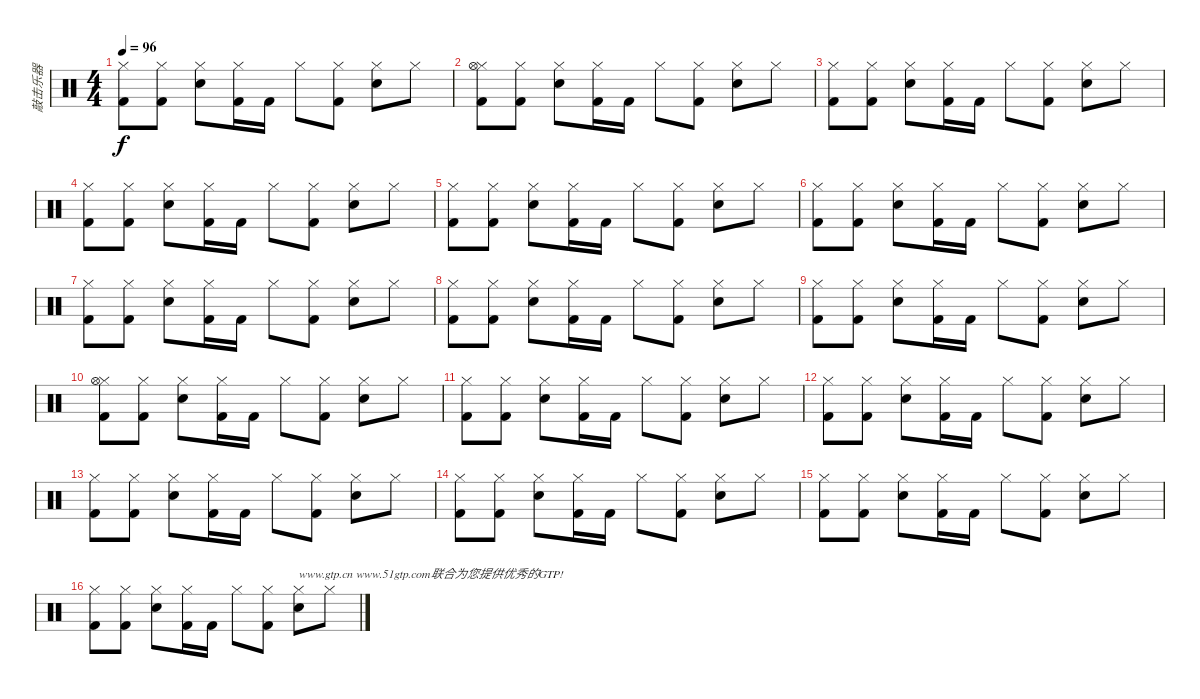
\track ("敲击乐器" "敲击乐器") {instrument percussion}
\staff {score}
\articulation defaults
\ts (4 4)
\tempo 96
\clef neutral
\ks c
("Hi-Hat (closed)" "Kick (hit) 2").8{dy f} ("Hi-Hat (closed)" "Kick (hit) 2").8 ("Hi-Hat (closed)" "Electric Snare (hit)").8 ("Hi-Hat (closed)" "Kick (hit) 2").16 "Kick (hit) 2".16 "Hi-Hat (closed)".8 ("Hi-Hat (closed)" "Kick (hit) 2").8 ("Hi-Hat (closed)" "Electric Snare (hit)").8 "Hi-Hat (closed)".8 |
("Hi-Hat (closed)" "Hi-Hat (open)" "Kick (hit) 2").8 ("Hi-Hat (closed)" "Kick (hit) 2").8 ("Hi-Hat (closed)" "Electric Snare (hit)").8 ("Hi-Hat (closed)" "Kick (hit) 2").16 "Kick (hit) 2".16 "Hi-Hat (closed)".8 ("Hi-Hat (closed)" "Kick (hit) 2").8 ("Hi-Hat (closed)" "Electric Snare (hit)").8 "Hi-Hat (closed)".8 |
("Hi-Hat (closed)" "Kick (hit) 2").8 ("Hi-Hat (closed)" "Kick (hit) 2").8 ("Hi-Hat (closed)" "Electric Snare (hit)").8 ("Hi-Hat (closed)" "Kick (hit) 2").16 "Kick (hit) 2".16 "Hi-Hat (closed)".8 ("Hi-Hat (closed)" "Kick (hit) 2").8 ("Hi-Hat (closed)" "Electric Snare (hit)").8 "Hi-Hat (closed)".8 |
("Hi-Hat (closed)" "Kick (hit) 2").8 ("Hi-Hat (closed)" "Kick (hit) 2").8 ("Hi-Hat (closed)" "Electric Snare (hit)").8 ("Hi-Hat (closed)" "Kick (hit) 2").16 "Kick (hit) 2".16 "Hi-Hat (closed)".8 ("Hi-Hat (closed)" "Kick (hit) 2").8 ("Hi-Hat (closed)" "Electric Snare (hit)").8 "Hi-Hat (closed)".8 |
("Hi-Hat (closed)" "Kick (hit) 2").8 ("Hi-Hat (closed)" "Kick (hit) 2").8 ("Hi-Hat (closed)" "Electric Snare (hit)").8 ("Hi-Hat (closed)" "Kick (hit) 2").16 "Kick (hit) 2".16 "Hi-Hat (closed)".8 ("Hi-Hat (closed)" "Kick (hit) 2").8 ("Hi-Hat (closed)" "Electric Snare (hit)").8 "Hi-Hat (closed)".8 |
("Hi-Hat (closed)" "Kick (hit) 2").8 ("Hi-Hat (closed)" "Kick (hit) 2").8 ("Hi-Hat (closed)" "Electric Snare (hit)").8 ("Hi-Hat (closed)" "Kick (hit) 2").16 "Kick (hit) 2".16 "Hi-Hat (closed)".8 ("Hi-Hat (closed)" "Kick (hit) 2").8 ("Hi-Hat (closed)" "Electric Snare (hit)").8 "Hi-Hat (closed)".8 |
("Hi-Hat (closed)" "Kick (hit) 2").8 ("Hi-Hat (closed)" "Kick (hit) 2").8 ("Hi-Hat (closed)" "Electric Snare (hit)").8 ("Hi-Hat (closed)" "Kick (hit) 2").16 "Kick (hit) 2".16 "Hi-Hat (closed)".8 ("Hi-Hat (closed)" "Kick (hit) 2").8 ("Hi-Hat (closed)" "Electric Snare (hit)").8 "Hi-Hat (closed)".8 |
("Hi-Hat (closed)" "Kick (hit) 2").8 ("Hi-Hat (closed)" "Kick (hit) 2").8 ("Hi-Hat (closed)" "Electric Snare (hit)").8 ("Hi-Hat (closed)" "Kick (hit) 2").16 "Kick (hit) 2".16 "Hi-Hat (closed)".8 ("Hi-Hat (closed)" "Kick (hit) 2").8 ("Hi-Hat (closed)" "Electric Snare (hit)").8 "Hi-Hat (closed)".8 |
("Hi-Hat (closed)" "Kick (hit) 2").8 ("Hi-Hat (closed)" "Kick (hit) 2").8 ("Hi-Hat (closed)" "Electric Snare (hit)").8 ("Hi-Hat (closed)" "Kick (hit) 2").16 "Kick (hit) 2".16 "Hi-Hat (closed)".8 ("Hi-Hat (closed)" "Kick (hit) 2").8 ("Hi-Hat (closed)" "Electric Snare (hit)").8 "Hi-Hat (closed)".8 |
("Hi-Hat (closed)" "Hi-Hat (open)" "Kick (hit) 2").8 ("Hi-Hat (closed)" "Kick (hit) 2").8 ("Hi-Hat (closed)" "Electric Snare (hit)").8 ("Hi-Hat (closed)" "Kick (hit) 2").16 "Kick (hit) 2".16 "Hi-Hat (closed)".8 ("Hi-Hat (closed)" "Kick (hit) 2").8 ("Hi-Hat (closed)" "Electric Snare (hit)").8 "Hi-Hat (closed)".8 |
("Hi-Hat (closed)" "Kick (hit) 2").8 ("Hi-Hat (closed)" "Kick (hit) 2").8 ("Hi-Hat (closed)" "Electric Snare (hit)").8 ("Hi-Hat (closed)" "Kick (hit) 2").16 "Kick (hit) 2".16 "Hi-Hat (closed)".8 ("Hi-Hat (closed)" "Kick (hit) 2").8 ("Hi-Hat (closed)" "Electric Snare (hit)").8 "Hi-Hat (closed)".8 |
("Hi-Hat (closed)" "Kick (hit) 2").8 ("Hi-Hat (closed)" "Kick (hit) 2").8 ("Hi-Hat (closed)" "Electric Snare (hit)").8 ("Hi-Hat (closed)" "Kick (hit) 2").16 "Kick (hit) 2".16 "Hi-Hat (closed)".8 ("Hi-Hat (closed)" "Kick (hit) 2").8 ("Hi-Hat (closed)" "Electric Snare (hit)").8 "Hi-Hat (closed)".8 |
("Hi-Hat (closed)" "Kick (hit) 2").8 ("Hi-Hat (closed)" "Kick (hit) 2").8 ("Hi-Hat (closed)" "Electric Snare (hit)").8 ("Hi-Hat (closed)" "Kick (hit) 2").16 "Kick (hit) 2".16 "Hi-Hat (closed)".8 ("Hi-Hat (closed)" "Kick (hit) 2").8 ("Hi-Hat (closed)" "Electric Snare (hit)").8 "Hi-Hat (closed)".8 |
("Hi-Hat (closed)" "Kick (hit) 2").8 ("Hi-Hat (closed)" "Kick (hit) 2").8 ("Hi-Hat (closed)" "Electric Snare (hit)").8 ("Hi-Hat (closed)" "Kick (hit) 2").16 "Kick (hit) 2".16 "Hi-Hat (closed)".8 ("Hi-Hat (closed)" "Kick (hit) 2").8 ("Hi-Hat (closed)" "Electric Snare (hit)").8 "Hi-Hat (closed)".8 |
("Hi-Hat (closed)" "Kick (hit) 2").8 ("Hi-Hat (closed)" "Kick (hit) 2").8 ("Hi-Hat (closed)" "Electric Snare (hit)").8 ("Hi-Hat (closed)" "Kick (hit) 2").16 "Kick (hit) 2".16 "Hi-Hat (closed)".8 ("Hi-Hat (closed)" "Kick (hit) 2").8 ("Hi-Hat (closed)" "Electric Snare (hit)").8 "Hi-Hat (closed)".8 |
("Hi-Hat (closed)" "Kick (hit) 2").8 ("Hi-Hat (closed)" "Kick (hit) 2").8 ("Hi-Hat (closed)" "Electric Snare (hit)").8 ("Hi-Hat (closed)" "Kick (hit) 2").16 "Kick (hit) 2".16 "Hi-Hat (closed)".8 ("Hi-Hat (closed)" "Kick (hit) 2").8 ("Hi-Hat (closed)" "Electric Snare (hit)").8{txt "www.gtp.cn www.51gtp.com联合为您提供优秀的GTP!"} "Hi-Hat (closed)".8
